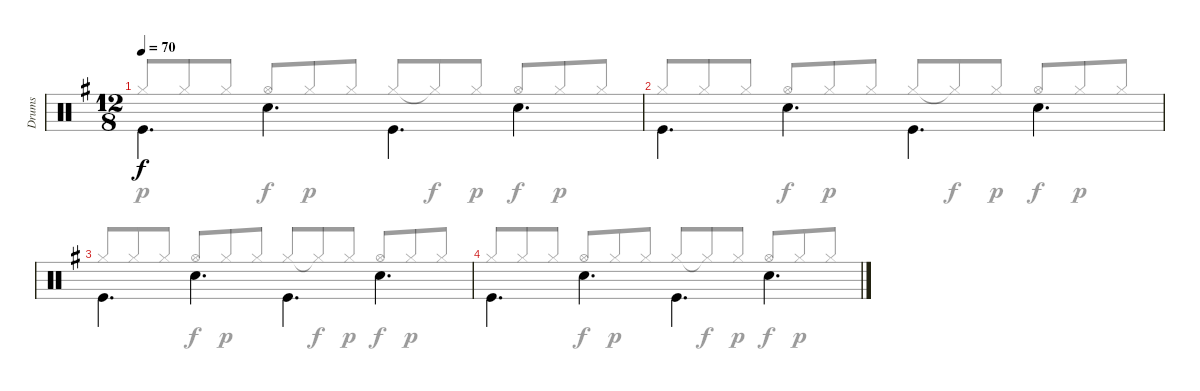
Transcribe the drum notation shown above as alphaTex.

\track ("Drums" "Drums") {instrument percussion}
\staff {score}
\articulation defaults
\voice
\ts (12 8)
\tempo 70
\clef neutral
\ks eminor "Kick (hit)".4{d dy f beam Down} "Snare (hit) 2".4{d beam Down} "Kick (hit)".4{d beam Down} "Snare (hit) 2".4{d beam Down}
|
"Kick (hit)".4{d beam Down} "Snare (hit) 2".4{d beam Down} "Kick (hit)".4{d beam Down} "Snare (hit) 2".4{d beam Down} |
"Kick (hit)".4{d beam Down} "Snare (hit) 2".4{d beam Down} "Kick (hit)".4{d beam Down} "Snare (hit) 2".4{d beam Down} |
"Kick (hit)".4{d beam Down} "Snare (hit) 2".4{d beam Down} "Kick (hit)".4{d beam Down} "Snare (hit) 2".4{d beam Down}
\voice
\clef neutral
\ottava regular
\simile none
\ks eminor "Hi-Hat (closed)".8{dy p beam Up} "Hi-Hat (closed)".8{beam Up} "Hi-Hat (closed)".8{beam Up} "Hi-Hat (open)".8{dy f beam Up} "Hi-Hat (closed)".8{dy p beam Up} "Hi-Hat (closed)".8{beam Up} "Hi-Hat (closed)".8{beam Up} "Hi-Hat (closed)"{t}.8{dy f beam Up} "Hi-Hat (closed)".8{dy p beam Up} "Hi-Hat (open)".8{dy f beam Up} "Hi-Hat (closed)".8{dy p beam Up} "Hi-Hat (closed)".8{beam Up}
|
"Hi-Hat (closed)".8{beam Up} "Hi-Hat (closed)".8{beam Up} "Hi-Hat (closed)".8{beam Up} "Hi-Hat (open)".8{dy f beam Up} "Hi-Hat (closed)".8{dy p beam Up} "Hi-Hat (closed)".8{beam Up} "Hi-Hat (closed)".8{beam Up} "Hi-Hat (closed)"{t}.8{dy f beam Up} "Hi-Hat (closed)".8{dy p beam Up} "Hi-Hat (open)".8{dy f beam Up} "Hi-Hat (closed)".8{dy p beam Up} "Hi-Hat (closed)".8{beam Up} |
"Hi-Hat (closed)".8{beam Up} "Hi-Hat (closed)".8{beam Up} "Hi-Hat (closed)".8{beam Up} "Hi-Hat (open)".8{dy f beam Up} "Hi-Hat (closed)".8{dy p beam Up} "Hi-Hat (closed)".8{beam Up} "Hi-Hat (closed)".8{beam Up} "Hi-Hat (closed)"{t}.8{dy f beam Up} "Hi-Hat (closed)".8{dy p beam Up} "Hi-Hat (open)".8{dy f beam Up} "Hi-Hat (closed)".8{dy p beam Up} "Hi-Hat (closed)".8{beam Up} |
"Hi-Hat (closed)".8{beam Up} "Hi-Hat (closed)".8{beam Up} "Hi-Hat (closed)".8{beam Up} "Hi-Hat (open)".8{dy f beam Up} "Hi-Hat (closed)".8{dy p beam Up} "Hi-Hat (closed)".8{beam Up} "Hi-Hat (closed)".8{beam Up} "Hi-Hat (closed)"{t}.8{dy f beam Up} "Hi-Hat (closed)".8{dy p beam Up} "Hi-Hat (open)".8{dy f beam Up} "Hi-Hat (closed)".8{dy p beam Up} "Hi-Hat (closed)".8{beam Up}
